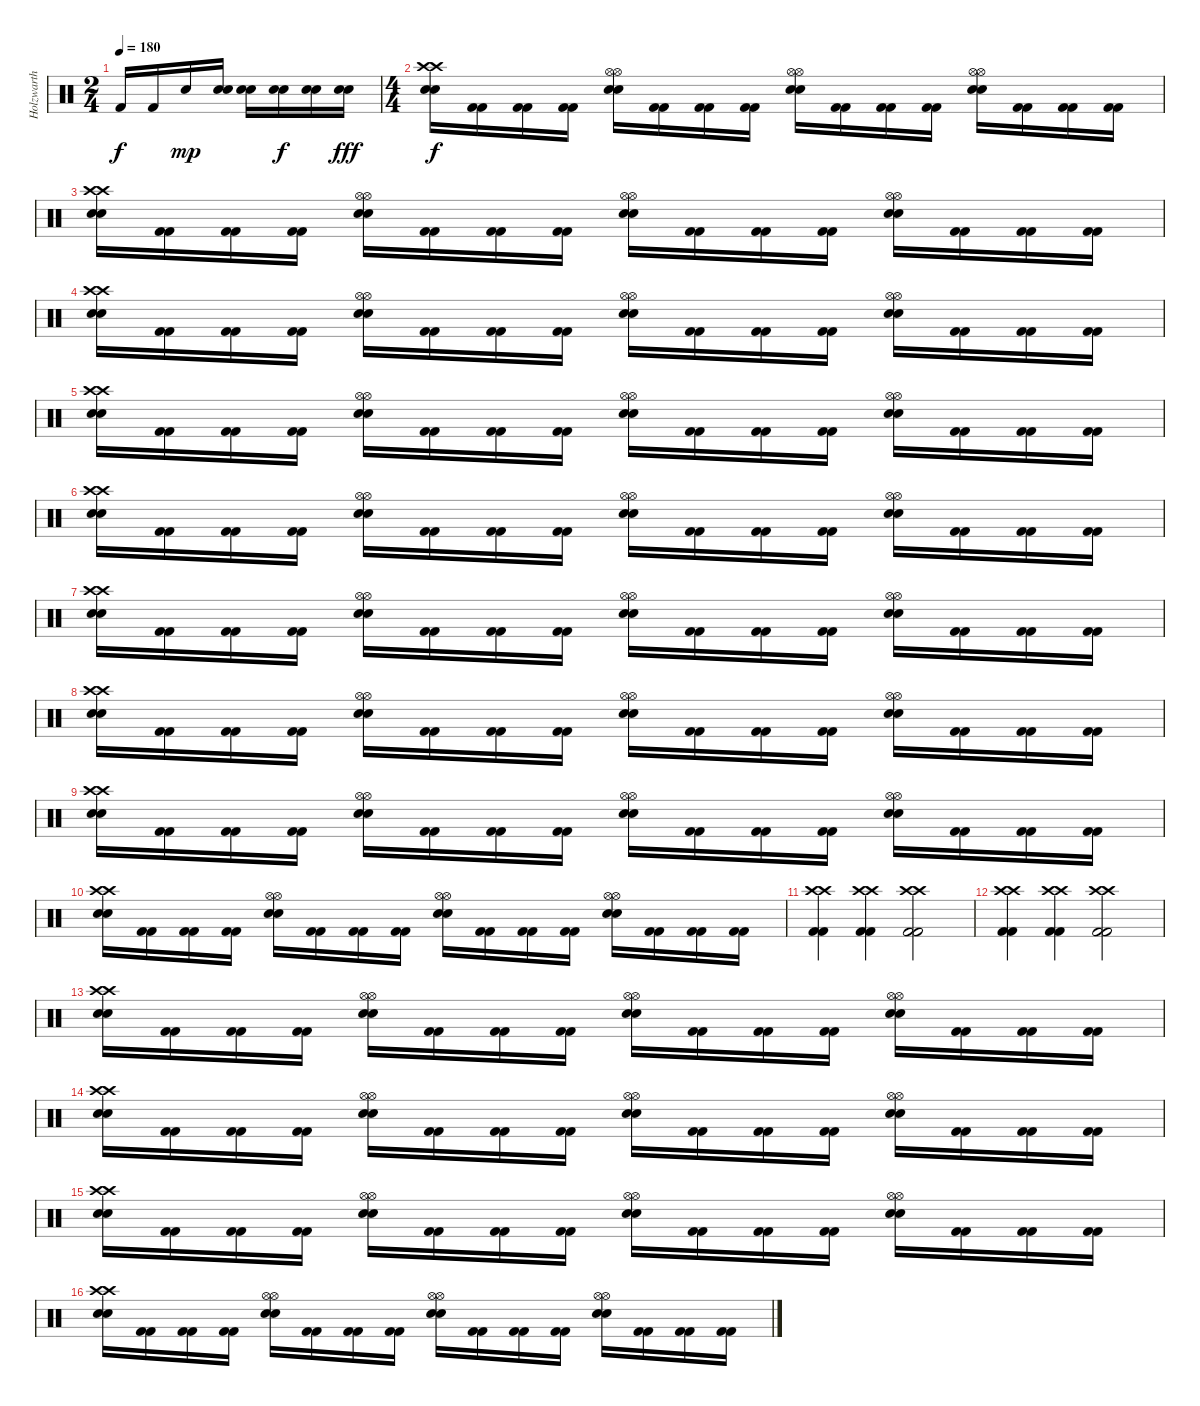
\track ("Holzwarth" "Holzwarth") {instrument percussion}
\staff {score}
\articulation defaults
\ts (2 4)
\tempo 180
\clef neutral
\ks c "Kick (hit) 2".16{dy f} "Kick (hit) 2".16 "Snare (hit) 2".16{dy mp}
("Snare (hit) 2" "Snare (hit) 2").16 ("Snare (hit) 2" "Snare (hit) 2").16 ("Snare (hit) 2" "Snare (hit) 2").16{dy f} ("Snare (hit) 2" "Snare (hit) 2").16 ("Snare (hit) 2" "Snare (hit) 2").16{dy fff} |
\ts (4 4)
("Snare (hit) 2" "Snare (hit) 2" "Crash high (hit)" "Crash high (hit)").16{dy f} ("Kick (hit) 2" "Kick (hit) 2").16 ("Kick (hit) 2" "Kick (hit) 2").16 ("Kick (hit) 2" "Kick (hit) 2").16 ("Snare (hit) 2" "Snare (hit) 2" "Hi-Hat (open)" "Hi-Hat (open)").16 ("Kick (hit) 2" "Kick (hit) 2").16 ("Kick (hit) 2" "Kick (hit) 2").16 ("Kick (hit) 2" "Kick (hit) 2").16 ("Snare (hit) 2" "Snare (hit) 2" "Hi-Hat (open)" "Hi-Hat (open)").16 ("Kick (hit) 2" "Kick (hit) 2").16 ("Kick (hit) 2" "Kick (hit) 2").16 ("Kick (hit) 2" "Kick (hit) 2").16 ("Snare (hit) 2" "Snare (hit) 2" "Hi-Hat (open)" "Hi-Hat (open)").16 ("Kick (hit) 2" "Kick (hit) 2").16 ("Kick (hit) 2" "Kick (hit) 2").16 ("Kick (hit) 2" "Kick (hit) 2").16 |
("Snare (hit) 2" "Snare (hit) 2" "Crash high (hit)" "Crash high (hit)").16 ("Kick (hit) 2" "Kick (hit) 2").16 ("Kick (hit) 2" "Kick (hit) 2").16 ("Kick (hit) 2" "Kick (hit) 2").16 ("Snare (hit) 2" "Snare (hit) 2" "Hi-Hat (open)" "Hi-Hat (open)").16 ("Kick (hit) 2" "Kick (hit) 2").16 ("Kick (hit) 2" "Kick (hit) 2").16 ("Kick (hit) 2" "Kick (hit) 2").16 ("Snare (hit) 2" "Snare (hit) 2" "Hi-Hat (open)" "Hi-Hat (open)").16 ("Kick (hit) 2" "Kick (hit) 2").16 ("Kick (hit) 2" "Kick (hit) 2").16 ("Kick (hit) 2" "Kick (hit) 2").16 ("Snare (hit) 2" "Snare (hit) 2" "Hi-Hat (open)" "Hi-Hat (open)").16 ("Kick (hit) 2" "Kick (hit) 2").16 ("Kick (hit) 2" "Kick (hit) 2").16 ("Kick (hit) 2" "Kick (hit) 2").16 |
("Snare (hit) 2" "Snare (hit) 2" "Crash high (hit)" "Crash high (hit)").16 ("Kick (hit) 2" "Kick (hit) 2").16 ("Kick (hit) 2" "Kick (hit) 2").16 ("Kick (hit) 2" "Kick (hit) 2").16 ("Snare (hit) 2" "Snare (hit) 2" "Hi-Hat (open)" "Hi-Hat (open)").16 ("Kick (hit) 2" "Kick (hit) 2").16 ("Kick (hit) 2" "Kick (hit) 2").16 ("Kick (hit) 2" "Kick (hit) 2").16 ("Snare (hit) 2" "Snare (hit) 2" "Hi-Hat (open)" "Hi-Hat (open)").16 ("Kick (hit) 2" "Kick (hit) 2").16 ("Kick (hit) 2" "Kick (hit) 2").16 ("Kick (hit) 2" "Kick (hit) 2").16 ("Snare (hit) 2" "Snare (hit) 2" "Hi-Hat (open)" "Hi-Hat (open)").16 ("Kick (hit) 2" "Kick (hit) 2").16 ("Kick (hit) 2" "Kick (hit) 2").16 ("Kick (hit) 2" "Kick (hit) 2").16 |
("Snare (hit) 2" "Snare (hit) 2" "Crash high (hit)" "Crash high (hit)").16 ("Kick (hit) 2" "Kick (hit) 2").16 ("Kick (hit) 2" "Kick (hit) 2").16 ("Kick (hit) 2" "Kick (hit) 2").16 ("Snare (hit) 2" "Snare (hit) 2" "Hi-Hat (open)" "Hi-Hat (open)").16 ("Kick (hit) 2" "Kick (hit) 2").16 ("Kick (hit) 2" "Kick (hit) 2").16 ("Kick (hit) 2" "Kick (hit) 2").16 ("Snare (hit) 2" "Snare (hit) 2" "Hi-Hat (open)" "Hi-Hat (open)").16 ("Kick (hit) 2" "Kick (hit) 2").16 ("Kick (hit) 2" "Kick (hit) 2").16 ("Kick (hit) 2" "Kick (hit) 2").16 ("Snare (hit) 2" "Snare (hit) 2" "Hi-Hat (open)" "Hi-Hat (open)").16 ("Kick (hit) 2" "Kick (hit) 2").16 ("Kick (hit) 2" "Kick (hit) 2").16 ("Kick (hit) 2" "Kick (hit) 2").16 |
("Snare (hit) 2" "Snare (hit) 2" "Crash high (hit)" "Crash high (hit)").16 ("Kick (hit) 2" "Kick (hit) 2").16 ("Kick (hit) 2" "Kick (hit) 2").16 ("Kick (hit) 2" "Kick (hit) 2").16 ("Snare (hit) 2" "Snare (hit) 2" "Hi-Hat (open)" "Hi-Hat (open)").16 ("Kick (hit) 2" "Kick (hit) 2").16 ("Kick (hit) 2" "Kick (hit) 2").16 ("Kick (hit) 2" "Kick (hit) 2").16 ("Snare (hit) 2" "Snare (hit) 2" "Hi-Hat (open)" "Hi-Hat (open)").16 ("Kick (hit) 2" "Kick (hit) 2").16 ("Kick (hit) 2" "Kick (hit) 2").16 ("Kick (hit) 2" "Kick (hit) 2").16 ("Snare (hit) 2" "Snare (hit) 2" "Hi-Hat (open)" "Hi-Hat (open)").16 ("Kick (hit) 2" "Kick (hit) 2").16 ("Kick (hit) 2" "Kick (hit) 2").16 ("Kick (hit) 2" "Kick (hit) 2").16 |
("Snare (hit) 2" "Snare (hit) 2" "Crash high (hit)" "Crash high (hit)").16 ("Kick (hit) 2" "Kick (hit) 2").16 ("Kick (hit) 2" "Kick (hit) 2").16 ("Kick (hit) 2" "Kick (hit) 2").16 ("Snare (hit) 2" "Snare (hit) 2" "Hi-Hat (open)" "Hi-Hat (open)").16 ("Kick (hit) 2" "Kick (hit) 2").16 ("Kick (hit) 2" "Kick (hit) 2").16 ("Kick (hit) 2" "Kick (hit) 2").16 ("Snare (hit) 2" "Snare (hit) 2" "Hi-Hat (open)" "Hi-Hat (open)").16 ("Kick (hit) 2" "Kick (hit) 2").16 ("Kick (hit) 2" "Kick (hit) 2").16 ("Kick (hit) 2" "Kick (hit) 2").16 ("Snare (hit) 2" "Snare (hit) 2" "Hi-Hat (open)" "Hi-Hat (open)").16 ("Kick (hit) 2" "Kick (hit) 2").16 ("Kick (hit) 2" "Kick (hit) 2").16 ("Kick (hit) 2" "Kick (hit) 2").16 |
("Snare (hit) 2" "Snare (hit) 2" "Crash high (hit)" "Crash high (hit)").16 ("Kick (hit) 2" "Kick (hit) 2").16 ("Kick (hit) 2" "Kick (hit) 2").16 ("Kick (hit) 2" "Kick (hit) 2").16 ("Snare (hit) 2" "Snare (hit) 2" "Hi-Hat (open)" "Hi-Hat (open)").16 ("Kick (hit) 2" "Kick (hit) 2").16 ("Kick (hit) 2" "Kick (hit) 2").16 ("Kick (hit) 2" "Kick (hit) 2").16 ("Snare (hit) 2" "Snare (hit) 2" "Hi-Hat (open)" "Hi-Hat (open)").16 ("Kick (hit) 2" "Kick (hit) 2").16 ("Kick (hit) 2" "Kick (hit) 2").16 ("Kick (hit) 2" "Kick (hit) 2").16 ("Snare (hit) 2" "Snare (hit) 2" "Hi-Hat (open)" "Hi-Hat (open)").16 ("Kick (hit) 2" "Kick (hit) 2").16 ("Kick (hit) 2" "Kick (hit) 2").16 ("Kick (hit) 2" "Kick (hit) 2").16 |
("Snare (hit) 2" "Snare (hit) 2" "Crash high (hit)" "Crash high (hit)").16 ("Kick (hit) 2" "Kick (hit) 2").16 ("Kick (hit) 2" "Kick (hit) 2").16 ("Kick (hit) 2" "Kick (hit) 2").16 ("Snare (hit) 2" "Snare (hit) 2" "Hi-Hat (open)" "Hi-Hat (open)").16 ("Kick (hit) 2" "Kick (hit) 2").16 ("Kick (hit) 2" "Kick (hit) 2").16 ("Kick (hit) 2" "Kick (hit) 2").16 ("Snare (hit) 2" "Snare (hit) 2" "Hi-Hat (open)" "Hi-Hat (open)").16 ("Kick (hit) 2" "Kick (hit) 2").16 ("Kick (hit) 2" "Kick (hit) 2").16 ("Kick (hit) 2" "Kick (hit) 2").16 ("Snare (hit) 2" "Snare (hit) 2" "Hi-Hat (open)" "Hi-Hat (open)").16 ("Kick (hit) 2" "Kick (hit) 2").16 ("Kick (hit) 2" "Kick (hit) 2").16 ("Kick (hit) 2" "Kick (hit) 2").16 |
("Snare (hit) 2" "Snare (hit) 2" "Crash high (hit)" "Crash high (hit)").16 ("Kick (hit) 2" "Kick (hit) 2").16 ("Kick (hit) 2" "Kick (hit) 2").16 ("Kick (hit) 2" "Kick (hit) 2").16 ("Snare (hit) 2" "Snare (hit) 2" "Hi-Hat (open)" "Hi-Hat (open)").16 ("Kick (hit) 2" "Kick (hit) 2").16 ("Kick (hit) 2" "Kick (hit) 2").16 ("Kick (hit) 2" "Kick (hit) 2").16 ("Snare (hit) 2" "Snare (hit) 2" "Hi-Hat (open)" "Hi-Hat (open)").16 ("Kick (hit) 2" "Kick (hit) 2").16 ("Kick (hit) 2" "Kick (hit) 2").16 ("Kick (hit) 2" "Kick (hit) 2").16 ("Snare (hit) 2" "Snare (hit) 2" "Hi-Hat (open)" "Hi-Hat (open)").16 ("Kick (hit) 2" "Kick (hit) 2").16 ("Kick (hit) 2" "Kick (hit) 2").16 ("Kick (hit) 2" "Kick (hit) 2").16 |
("Kick (hit) 2" "Kick (hit) 2" "Crash high (hit)" "Crash high (hit)").4 ("Kick (hit) 2" "Kick (hit) 2" "Crash high (hit)" "Crash high (hit)").4 ("Kick (hit) 2" "Kick (hit) 2" "Crash high (hit)" "Crash high (hit)").2 |
("Kick (hit) 2" "Kick (hit) 2" "Crash high (hit)" "Crash high (hit)").4 ("Kick (hit) 2" "Kick (hit) 2" "Crash high (hit)" "Crash high (hit)").4 ("Kick (hit) 2" "Kick (hit) 2" "Crash high (hit)" "Crash high (hit)").2 |
("Snare (hit) 2" "Snare (hit) 2" "Crash high (hit)" "Crash high (hit)").16 ("Kick (hit) 2" "Kick (hit) 2").16 ("Kick (hit) 2" "Kick (hit) 2").16 ("Kick (hit) 2" "Kick (hit) 2").16 ("Snare (hit) 2" "Snare (hit) 2" "Hi-Hat (open)" "Hi-Hat (open)").16 ("Kick (hit) 2" "Kick (hit) 2").16 ("Kick (hit) 2" "Kick (hit) 2").16 ("Kick (hit) 2" "Kick (hit) 2").16 ("Snare (hit) 2" "Snare (hit) 2" "Hi-Hat (open)" "Hi-Hat (open)").16 ("Kick (hit) 2" "Kick (hit) 2").16 ("Kick (hit) 2" "Kick (hit) 2").16 ("Kick (hit) 2" "Kick (hit) 2").16 ("Snare (hit) 2" "Snare (hit) 2" "Hi-Hat (open)" "Hi-Hat (open)").16 ("Kick (hit) 2" "Kick (hit) 2").16 ("Kick (hit) 2" "Kick (hit) 2").16 ("Kick (hit) 2" "Kick (hit) 2").16 |
("Snare (hit) 2" "Snare (hit) 2" "Crash high (hit)" "Crash high (hit)").16 ("Kick (hit) 2" "Kick (hit) 2").16 ("Kick (hit) 2" "Kick (hit) 2").16 ("Kick (hit) 2" "Kick (hit) 2").16 ("Snare (hit) 2" "Snare (hit) 2" "Hi-Hat (open)" "Hi-Hat (open)").16 ("Kick (hit) 2" "Kick (hit) 2").16 ("Kick (hit) 2" "Kick (hit) 2").16 ("Kick (hit) 2" "Kick (hit) 2").16 ("Snare (hit) 2" "Snare (hit) 2" "Hi-Hat (open)" "Hi-Hat (open)").16 ("Kick (hit) 2" "Kick (hit) 2").16 ("Kick (hit) 2" "Kick (hit) 2").16 ("Kick (hit) 2" "Kick (hit) 2").16 ("Snare (hit) 2" "Snare (hit) 2" "Hi-Hat (open)" "Hi-Hat (open)").16 ("Kick (hit) 2" "Kick (hit) 2").16 ("Kick (hit) 2" "Kick (hit) 2").16 ("Kick (hit) 2" "Kick (hit) 2").16 |
("Snare (hit) 2" "Snare (hit) 2" "Crash high (hit)" "Crash high (hit)").16 ("Kick (hit) 2" "Kick (hit) 2").16 ("Kick (hit) 2" "Kick (hit) 2").16 ("Kick (hit) 2" "Kick (hit) 2").16 ("Snare (hit) 2" "Snare (hit) 2" "Hi-Hat (open)" "Hi-Hat (open)").16 ("Kick (hit) 2" "Kick (hit) 2").16 ("Kick (hit) 2" "Kick (hit) 2").16 ("Kick (hit) 2" "Kick (hit) 2").16 ("Snare (hit) 2" "Snare (hit) 2" "Hi-Hat (open)" "Hi-Hat (open)").16 ("Kick (hit) 2" "Kick (hit) 2").16 ("Kick (hit) 2" "Kick (hit) 2").16 ("Kick (hit) 2" "Kick (hit) 2").16 ("Snare (hit) 2" "Snare (hit) 2" "Hi-Hat (open)" "Hi-Hat (open)").16 ("Kick (hit) 2" "Kick (hit) 2").16 ("Kick (hit) 2" "Kick (hit) 2").16 ("Kick (hit) 2" "Kick (hit) 2").16 |
("Snare (hit) 2" "Snare (hit) 2" "Crash high (hit)" "Crash high (hit)").16 ("Kick (hit) 2" "Kick (hit) 2").16 ("Kick (hit) 2" "Kick (hit) 2").16 ("Kick (hit) 2" "Kick (hit) 2").16 ("Snare (hit) 2" "Snare (hit) 2" "Hi-Hat (open)" "Hi-Hat (open)").16 ("Kick (hit) 2" "Kick (hit) 2").16 ("Kick (hit) 2" "Kick (hit) 2").16 ("Kick (hit) 2" "Kick (hit) 2").16 ("Snare (hit) 2" "Snare (hit) 2" "Hi-Hat (open)" "Hi-Hat (open)").16 ("Kick (hit) 2" "Kick (hit) 2").16 ("Kick (hit) 2" "Kick (hit) 2").16 ("Kick (hit) 2" "Kick (hit) 2").16 ("Snare (hit) 2" "Snare (hit) 2" "Hi-Hat (open)" "Hi-Hat (open)").16 ("Kick (hit) 2" "Kick (hit) 2").16 ("Kick (hit) 2" "Kick (hit) 2").16 ("Kick (hit) 2" "Kick (hit) 2").16
